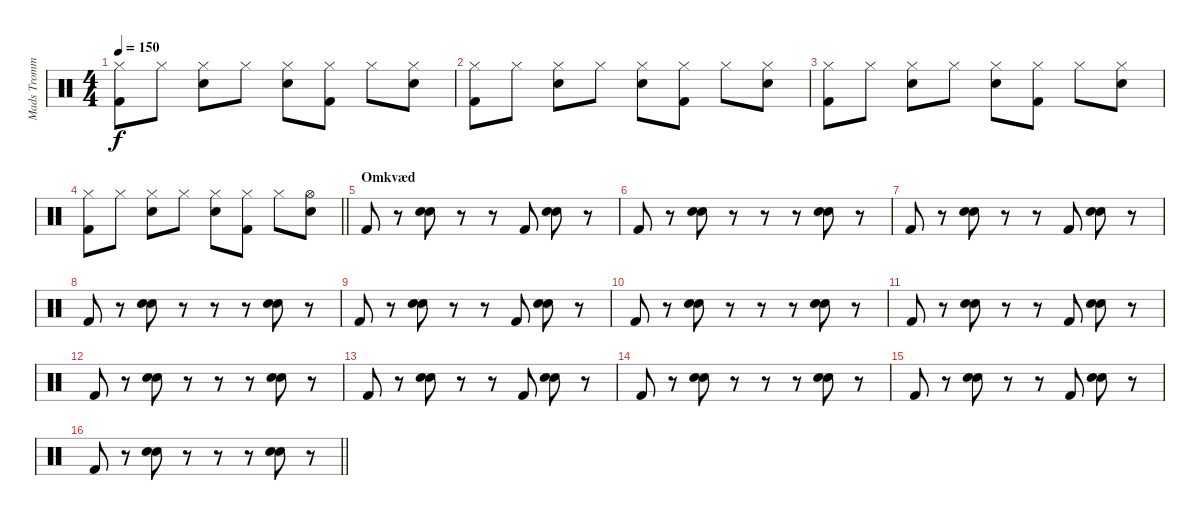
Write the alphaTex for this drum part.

\track ("Mads Trommer" "Mads Tromm") {instrument percussion}
\staff {score}
\articulation defaults
\ts (4 4)
\tempo 150
\clef neutral
\ks c
("Hi-Hat (closed)" "Kick (hit) 2").8{dy f} "Hi-Hat (closed)".8 ("Hi-Hat (closed)" "Electric Snare (hit)").8 "Hi-Hat (closed)".8 ("Hi-Hat (closed)" "Electric Snare (hit)").8 ("Hi-Hat (closed)" "Kick (hit) 2").8 "Hi-Hat (closed)".8 ("Hi-Hat (closed)" "Electric Snare (hit)").8 |
("Hi-Hat (closed)" "Kick (hit) 2").8 "Hi-Hat (closed)".8 ("Hi-Hat (closed)" "Electric Snare (hit)").8 "Hi-Hat (closed)".8 ("Hi-Hat (closed)" "Electric Snare (hit)").8 ("Hi-Hat (closed)" "Kick (hit) 2").8 "Hi-Hat (closed)".8 ("Hi-Hat (closed)" "Electric Snare (hit)").8 |
("Hi-Hat (closed)" "Kick (hit) 2").8 "Hi-Hat (closed)".8 ("Hi-Hat (closed)" "Electric Snare (hit)").8 "Hi-Hat (closed)".8 ("Hi-Hat (closed)" "Electric Snare (hit)").8 ("Hi-Hat (closed)" "Kick (hit) 2").8 "Hi-Hat (closed)".8 ("Hi-Hat (closed)" "Electric Snare (hit)").8 |
\barLineRight lightlight
("Hi-Hat (closed)" "Kick (hit) 2").8 "Hi-Hat (closed)".8 ("Hi-Hat (closed)" "Electric Snare (hit)").8 "Hi-Hat (closed)".8 ("Hi-Hat (closed)" "Electric Snare (hit)").8 ("Hi-Hat (closed)" "Kick (hit) 2").8 "Hi-Hat (closed)".8 ("Hi-Hat (open)" "Electric Snare (hit)").8 |
\section ("" "Omkvæd")
"Kick (hit) 2".8 r.8 ("Hand Clap (hit)" "Electric Snare (hit)").8 r.8 r.8 "Kick (hit) 2".8 ("Hand Clap (hit)" "Electric Snare (hit)").8 r.8 |
"Kick (hit) 2".8 r.8 ("Hand Clap (hit)" "Electric Snare (hit)").8 r.8 r.8 r.8 ("Hand Clap (hit)" "Electric Snare (hit)").8 r.8 |
"Kick (hit) 2".8 r.8 ("Hand Clap (hit)" "Electric Snare (hit)").8 r.8 r.8 "Kick (hit) 2".8 ("Hand Clap (hit)" "Electric Snare (hit)").8 r.8 |
"Kick (hit) 2".8 r.8 ("Hand Clap (hit)" "Electric Snare (hit)").8 r.8 r.8 r.8 ("Hand Clap (hit)" "Electric Snare (hit)").8 r.8 |
"Kick (hit) 2".8 r.8 ("Hand Clap (hit)" "Electric Snare (hit)").8 r.8 r.8 "Kick (hit) 2".8 ("Hand Clap (hit)" "Electric Snare (hit)").8 r.8 |
"Kick (hit) 2".8 r.8 ("Hand Clap (hit)" "Electric Snare (hit)").8 r.8 r.8 r.8 ("Hand Clap (hit)" "Electric Snare (hit)").8 r.8 |
"Kick (hit) 2".8 r.8 ("Hand Clap (hit)" "Electric Snare (hit)").8 r.8 r.8 "Kick (hit) 2".8 ("Hand Clap (hit)" "Electric Snare (hit)").8 r.8 |
"Kick (hit) 2".8 r.8 ("Hand Clap (hit)" "Electric Snare (hit)").8 r.8 r.8 r.8 ("Hand Clap (hit)" "Electric Snare (hit)").8 r.8 |
"Kick (hit) 2".8 r.8 ("Hand Clap (hit)" "Electric Snare (hit)").8 r.8 r.8 "Kick (hit) 2".8 ("Hand Clap (hit)" "Electric Snare (hit)").8 r.8 |
"Kick (hit) 2".8 r.8 ("Hand Clap (hit)" "Electric Snare (hit)").8 r.8 r.8 r.8 ("Hand Clap (hit)" "Electric Snare (hit)").8 r.8 |
"Kick (hit) 2".8 r.8 ("Hand Clap (hit)" "Electric Snare (hit)").8 r.8 r.8 "Kick (hit) 2".8 ("Hand Clap (hit)" "Electric Snare (hit)").8 r.8 |
\barLineRight lightlight "Kick (hit) 2".8
r.8 ("Hand Clap (hit)" "Electric Snare (hit)").8 r.8 r.8 r.8 ("Hand Clap (hit)" "Electric Snare (hit)").8 r.8
